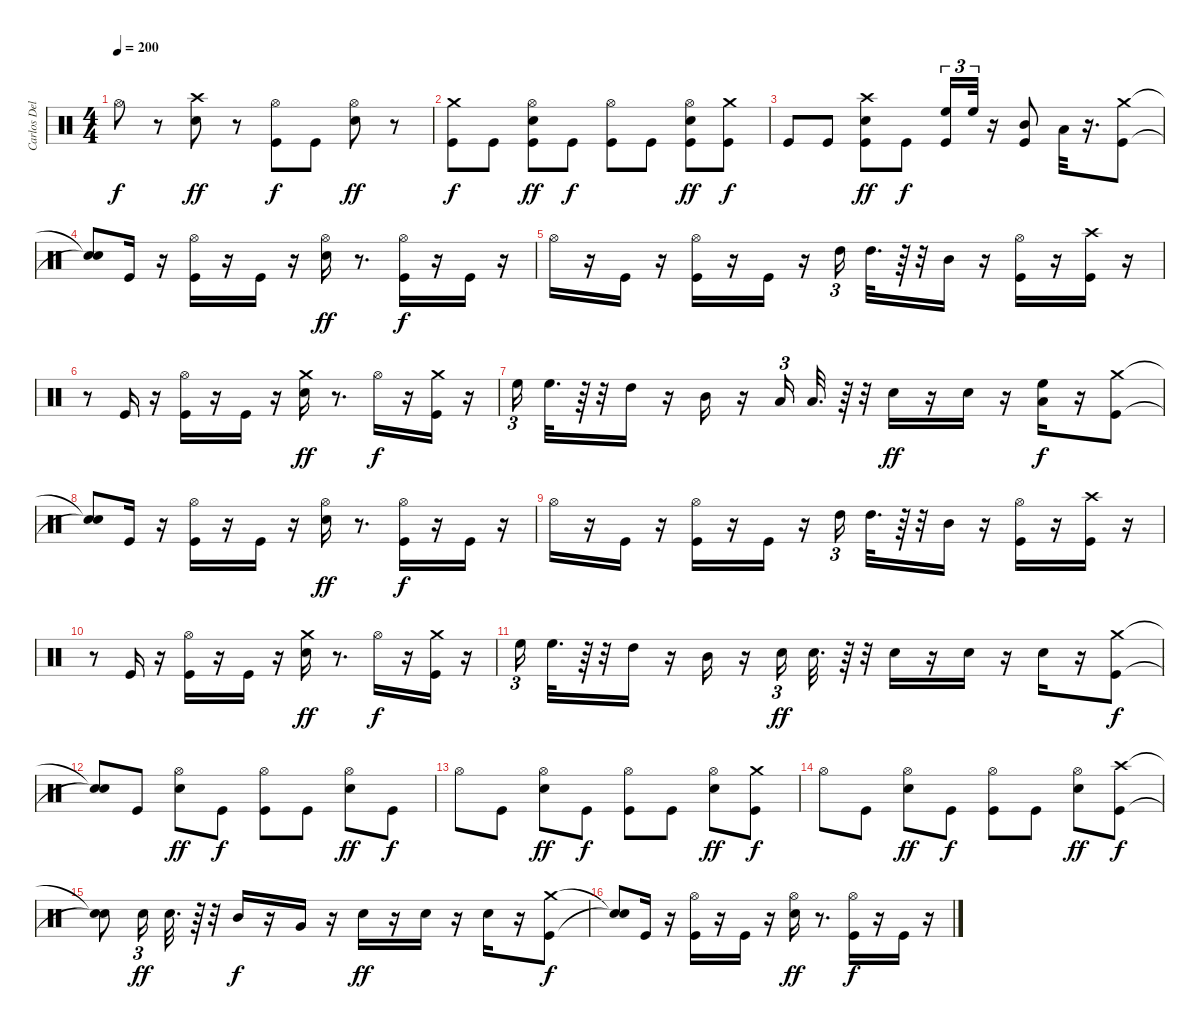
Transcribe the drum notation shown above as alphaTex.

\track ("Carlos Delgado" "Carlos Del") {instrument percussion}
\staff {score}
\articulation defaults
\ts (4 4)
\tempo 200
\clef neutral
\ks c "Hi-Hat (open)".8{dy f}
r.8 ("Crash high (hit)" "Electric Snare (hit)").8{dy ff} r.8 ("Kick (hit)" "Hi-Hat (open)").8{dy f} "Kick (hit)".8 ("Hi-Hat (open)" "Electric Snare (hit)").8{dy ff} r.8 |
("Crash medium (hit)" "Kick (hit)").8{dy f} "Kick (hit)".8 ("Kick (hit)" "Hi-Hat (open)" "Electric Snare (hit)").8{dy ff} "Kick (hit)".8{dy f} ("Hi-Hat (open)" "Kick (hit)").8 "Kick (hit)".8 ("Kick (hit)" "Electric Snare (hit)" "Hi-Hat (open)").8{dy ff} ("Kick (hit)" "Crash medium (hit)").8{dy f} |
"Kick (hit)".8 "Kick (hit)".8 ("Crash high (hit)" "Electric Snare (hit)" "Kick (hit)").8{dy ff} "Kick (hit)".8{dy f} ("Kick (hit)" "High Floor Tom (hit)").16{tu (3 2)} "High Floor Tom (hit)".32{tu (3 2)} r.16 ("Kick (hit)" "Mid Tom (hit)").8 "Low Tom (hit)".32 r.16{d} ("Kick (hit)" "Crash medium (hit)").8 |
("Snare (hit)"{t} "Snare (hit)"{t}).8 "Kick (hit)".16 r.16 ("Kick (hit)" "Hi-Hat (open)").16 r.16 "Kick (hit)".16 r.16 ("Electric Snare (hit)" "Hi-Hat (open)").16{dy ff} r.8{d} ("Hi-Hat (open)" "Kick (hit)").16{dy f} r.16 "Kick (hit)".16 r.16 |
"Hi-Hat (open)".16 r.16 "Kick (hit)".16 r.16 ("Hi-Hat (open)" "Kick (hit)").16 r.16 "Kick (hit)".16 r.16 "High Tom (hit)".16{tu (3 2)} "High Tom (hit)".32{d} r.64 r.32 "Mid Tom (hit)".16 r.16 ("Kick (hit)" "Hi-Hat (open)").16 r.16 ("Crash high (hit)" "Kick (hit)").16 r.16 |
r.8 "Kick (hit)".16 r.16 ("Kick (hit)" "Hi-Hat (open)").16 r.16 "Kick (hit)".16 r.16 ("Electric Snare (hit)" "Crash medium (hit)").16{dy ff} r.8{d} "Hi-Hat (open)".16{dy f} r.16 ("Crash medium (hit)" "Kick (hit)").16 r.16 |
"High Floor Tom (hit)".16{tu (3 2)} "High Floor Tom (hit)".32{d} r.64 r.32 "High Tom (hit)".16 r.16 "Mid Tom (hit)".16 r.16 "Low Tom (hit)".16{tu (3 2)} "Low Tom (hit)".32{d} r.64 r.32 "Electric Snare (hit)".16{dy ff} r.16 "Electric Snare (hit)".16 r.16 ("Low Tom (hit)" "High Floor Tom (hit)").16{dy f} r.16 ("Kick (hit)" "Crash medium (hit)").8 |
("Snare (hit)"{t} "Snare (hit)"{t}).8 "Kick (hit)".16 r.16 ("Hi-Hat (open)" "Kick (hit)").16 r.16 "Kick (hit)".16 r.16 ("Hi-Hat (open)" "Electric Snare (hit)").16{dy ff} r.8{d} ("Hi-Hat (open)" "Kick (hit)").16{dy f} r.16 "Kick (hit)".16 r.16 |
"Hi-Hat (open)".16 r.16 "Kick (hit)".16 r.16 ("Hi-Hat (open)" "Kick (hit)").16 r.16 "Kick (hit)".16 r.16 "High Tom (hit)".16{tu (3 2)} "High Tom (hit)".32{d} r.64 r.32 "Mid Tom (hit)".16 r.16 ("Hi-Hat (open)" "Kick (hit)").16 r.16 ("Crash high (hit)" "Kick (hit)").16 r.16 |
r.8 "Kick (hit)".16 r.16 ("Kick (hit)" "Hi-Hat (open)").16 r.16 "Kick (hit)".16 r.16 ("Electric Snare (hit)" "Crash medium (hit)").16{dy ff} r.8{d} "Hi-Hat (open)".16{dy f} r.16 ("Crash medium (hit)" "Kick (hit)").16 r.16 |
"High Floor Tom (hit)".16{tu (3 2)} "High Floor Tom (hit)".32{d} r.64 r.32 "High Tom (hit)".16 r.16 "Mid Tom (hit)".16 r.16 "Electric Snare (hit)".16{tu (3 2) dy ff} "Electric Snare (hit)".32{d} r.64 r.32 "Electric Snare (hit)".16 r.16 "Electric Snare (hit)".16 r.16 "Electric Snare (hit)".16 r.16 ("Crash medium (hit)" "Kick (hit)").8{dy f} |
("Snare (hit)"{t} "Snare (hit)"{t}).8 "Kick (hit)".8 ("Electric Snare (hit)" "Hi-Hat (open)").8{dy ff} "Kick (hit)".8{dy f} ("Kick (hit)" "Hi-Hat (open)").8 "Kick (hit)".8 ("Electric Snare (hit)" "Hi-Hat (open)").8{dy ff} "Kick (hit)".8{dy f} |
"Hi-Hat (open)".8 "Kick (hit)".8 ("Hi-Hat (open)" "Electric Snare (hit)").8{dy ff} "Kick (hit)".8{dy f} ("Hi-Hat (open)" "Kick (hit)").8 "Kick (hit)".8 ("Hi-Hat (open)" "Electric Snare (hit)").8{dy ff} ("Crash medium (hit)" "Kick (hit)").8{dy f} |
"Hi-Hat (open)".8 "Kick (hit)".8 ("Electric Snare (hit)" "Hi-Hat (open)").8{dy ff} "Kick (hit)".8{dy f} ("Kick (hit)" "Hi-Hat (open)").8 "Kick (hit)".8 ("Electric Snare (hit)" "Hi-Hat (open)").8{dy ff} ("Kick (hit)" "Crash high (hit)").8{dy f} |
("Snare (hit)"{t} "Snare (hit)"{t}).8 "Electric Snare (hit)".16{tu (3 2) dy ff} "Electric Snare (hit)".32{d} r.64 r.32 "Mid Tom (hit)".16{dy f} r.16 "Very Low Tom (hit)".16 r.16 "Electric Snare (hit)".16{dy ff} r.16 "Electric Snare (hit)".16 r.16 "Electric Snare (hit)".16 r.16 ("Crash medium (hit)" "Kick (hit)").8{dy f} |
("Snare (hit)"{t} "Snare (hit)"{t}).8 "Kick (hit)".16 r.16 ("Hi-Hat (open)" "Kick (hit)").16 r.16 "Kick (hit)".16 r.16 ("Hi-Hat (open)" "Electric Snare (hit)").16{dy ff} r.8{d} ("Hi-Hat (open)" "Kick (hit)").16{dy f} r.16 "Kick (hit)".16 r.16
